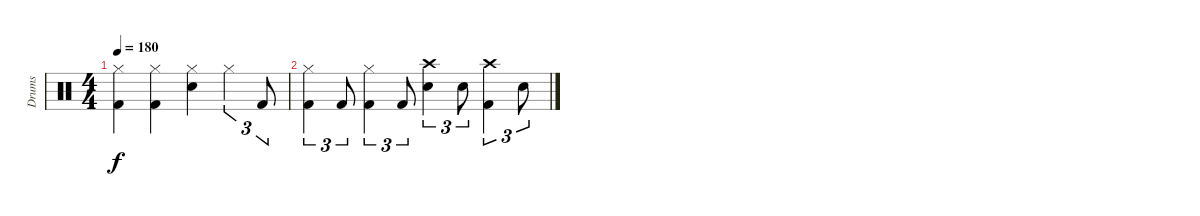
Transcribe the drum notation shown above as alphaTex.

\track ("Drums" "Drums") {instrument percussion}
\staff {score}
\articulation defaults
\ts (4 4)
\tempo 180
\clef neutral
\ks c
("Hi-Hat (closed)" "Kick (hit) 2").4{dy f} ("Hi-Hat (closed)" "Kick (hit) 2").4 ("Hi-Hat (closed)" "Snare (hit) 2").4 "Hi-Hat (closed)".4{tu (3 2)} "Kick (hit) 2".8{tu (3 2)} |
("Hi-Hat (closed)" "Kick (hit) 2").4{tu (3 2)} "Kick (hit) 2".8{tu (3 2)} ("Hi-Hat (closed)" "Kick (hit) 2").4{tu (3 2)} "Kick (hit) 2".8{tu (3 2)} ("Crash high (hit)" "Snare (hit) 2").4{tu (3 2)} "Snare (hit) 2".8{tu (3 2)} ("Crash high (hit)" "Kick (hit) 2").4{tu (3 2)} "Snare (hit) 2".8{tu (3 2)}
